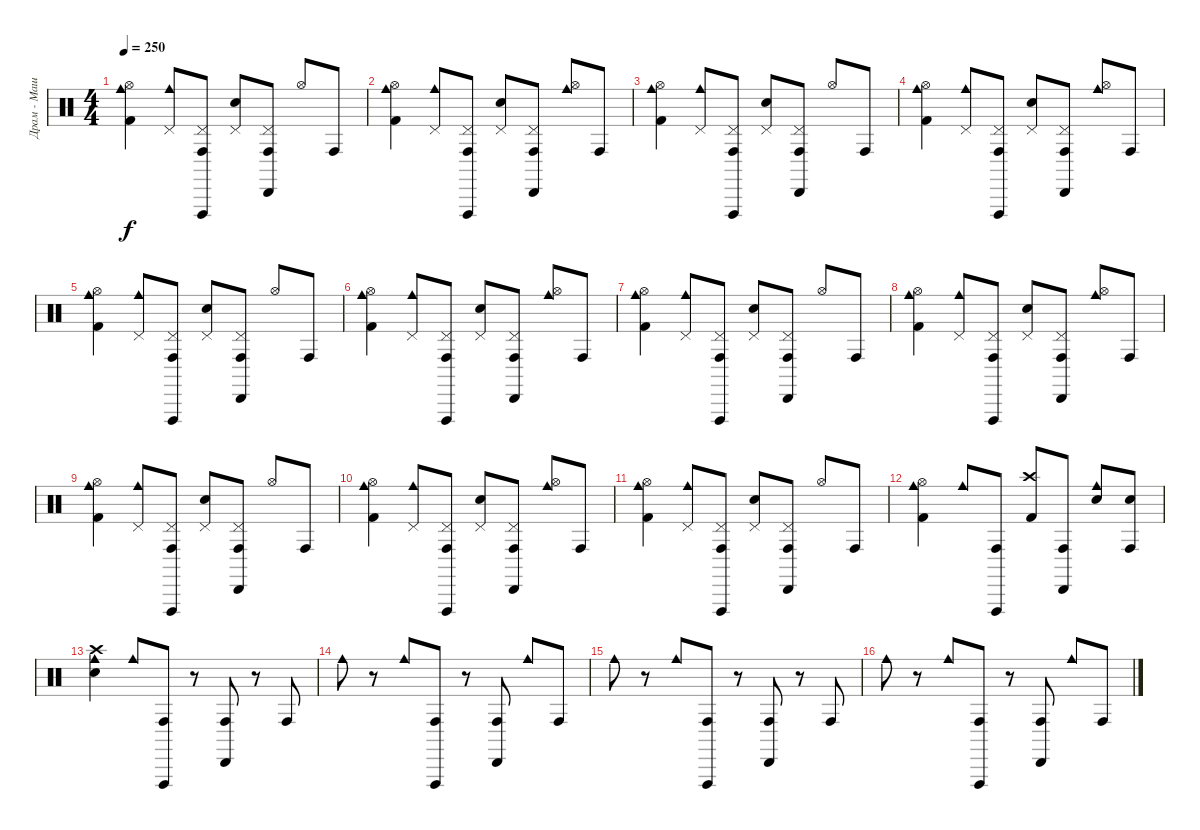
\track ("Драм - Машина" "Драм - Маш") {instrument percussion}
\staff {score}
\articulation defaults
\ts (4 4)
\tempo 250
\clef neutral
\ks c
("Cowbell medium (hit)" "Hi-Hat (open)" "Kick (hit) 2").4{dy f} ("Cowbell medium (hit)" "Pedal Hi-Hat (hit)").8 ("Conga high (hit)" "Vibraslap (hit)" "Pedal Hi-Hat (hit)").8 ("Pedal Hi-Hat (hit)" "Snare (hit) 2").8 ("Cabasa (hit)" "Conga high (hit)" "Pedal Hi-Hat (hit)").8 "Hi-Hat (open)".8 "Conga high (hit)".8 |
("Cowbell medium (hit)" "Hi-Hat (open)" "Kick (hit) 2").4 ("Cowbell medium (hit)" "Pedal Hi-Hat (hit)").8 ("Conga high (hit)" "Vibraslap (hit)" "Pedal Hi-Hat (hit)").8 ("Pedal Hi-Hat (hit)" "Snare (hit) 2").8 ("Cabasa (hit)" "Conga high (hit)" "Pedal Hi-Hat (hit)").8 ("Cowbell medium (hit)" "Hi-Hat (open)").8 "Conga high (hit)".8 |
("Cowbell medium (hit)" "Hi-Hat (open)" "Kick (hit) 2").4 ("Cowbell medium (hit)" "Pedal Hi-Hat (hit)").8 ("Conga high (hit)" "Vibraslap (hit)" "Pedal Hi-Hat (hit)").8 ("Pedal Hi-Hat (hit)" "Snare (hit) 2").8 ("Cabasa (hit)" "Conga high (hit)" "Pedal Hi-Hat (hit)").8 "Hi-Hat (open)".8 "Conga high (hit)".8 |
("Cowbell medium (hit)" "Hi-Hat (open)" "Kick (hit) 2").4 ("Cowbell medium (hit)" "Pedal Hi-Hat (hit)").8 ("Conga high (hit)" "Vibraslap (hit)" "Pedal Hi-Hat (hit)").8 ("Pedal Hi-Hat (hit)" "Snare (hit) 2").8 ("Cabasa (hit)" "Conga high (hit)" "Pedal Hi-Hat (hit)").8 ("Cowbell medium (hit)" "Hi-Hat (open)").8 "Conga high (hit)".8 |
("Cowbell medium (hit)" "Hi-Hat (open)" "Kick (hit) 2").4 ("Cowbell medium (hit)" "Pedal Hi-Hat (hit)").8 ("Conga high (hit)" "Vibraslap (hit)" "Pedal Hi-Hat (hit)").8 ("Pedal Hi-Hat (hit)" "Snare (hit) 2").8 ("Cabasa (hit)" "Conga high (hit)" "Pedal Hi-Hat (hit)").8 "Hi-Hat (open)".8 "Conga high (hit)".8 |
("Cowbell medium (hit)" "Hi-Hat (open)" "Kick (hit) 2").4 ("Cowbell medium (hit)" "Pedal Hi-Hat (hit)").8 ("Conga high (hit)" "Vibraslap (hit)" "Pedal Hi-Hat (hit)").8 ("Pedal Hi-Hat (hit)" "Snare (hit) 2").8 ("Cabasa (hit)" "Conga high (hit)" "Pedal Hi-Hat (hit)").8 ("Cowbell medium (hit)" "Hi-Hat (open)").8 "Conga high (hit)".8 |
("Cowbell medium (hit)" "Hi-Hat (open)" "Kick (hit) 2").4 ("Cowbell medium (hit)" "Pedal Hi-Hat (hit)").8 ("Conga high (hit)" "Vibraslap (hit)" "Pedal Hi-Hat (hit)").8 ("Pedal Hi-Hat (hit)" "Snare (hit) 2").8 ("Cabasa (hit)" "Conga high (hit)" "Pedal Hi-Hat (hit)").8 "Hi-Hat (open)".8 "Conga high (hit)".8 |
("Cowbell medium (hit)" "Hi-Hat (open)" "Kick (hit) 2").4 ("Cowbell medium (hit)" "Pedal Hi-Hat (hit)").8 ("Conga high (hit)" "Vibraslap (hit)" "Pedal Hi-Hat (hit)").8 ("Pedal Hi-Hat (hit)" "Snare (hit) 2").8 ("Cabasa (hit)" "Conga high (hit)" "Pedal Hi-Hat (hit)").8 ("Cowbell medium (hit)" "Hi-Hat (open)").8 "Conga high (hit)".8 |
("Cowbell medium (hit)" "Hi-Hat (open)" "Kick (hit) 2").4 ("Cowbell medium (hit)" "Pedal Hi-Hat (hit)").8 ("Conga high (hit)" "Vibraslap (hit)" "Pedal Hi-Hat (hit)").8 ("Pedal Hi-Hat (hit)" "Snare (hit) 2").8 ("Cabasa (hit)" "Conga high (hit)" "Pedal Hi-Hat (hit)").8 "Hi-Hat (open)".8 "Conga high (hit)".8 |
("Cowbell medium (hit)" "Hi-Hat (open)" "Kick (hit) 2").4 ("Cowbell medium (hit)" "Pedal Hi-Hat (hit)").8 ("Conga high (hit)" "Vibraslap (hit)" "Pedal Hi-Hat (hit)").8 ("Pedal Hi-Hat (hit)" "Snare (hit) 2").8 ("Cabasa (hit)" "Conga high (hit)" "Pedal Hi-Hat (hit)").8 ("Cowbell medium (hit)" "Hi-Hat (open)").8 "Conga high (hit)".8 |
("Cowbell medium (hit)" "Hi-Hat (open)" "Kick (hit) 2").4 ("Cowbell medium (hit)" "Pedal Hi-Hat (hit)").8 ("Conga high (hit)" "Vibraslap (hit)" "Pedal Hi-Hat (hit)").8 ("Pedal Hi-Hat (hit)" "Snare (hit) 2").8 ("Cabasa (hit)" "Conga high (hit)" "Pedal Hi-Hat (hit)").8 "Hi-Hat (open)".8 "Conga high (hit)".8 |
("Cowbell medium (hit)" "Hi-Hat (open)" "Kick (hit) 2").4 "Cowbell medium (hit)".8 ("Conga high (hit)" "Vibraslap (hit)").8 ("Crash high (hit)" "Kick (hit) 2").8 ("Cabasa (hit)" "Conga high (hit)").8 ("Cowbell medium (hit)" "Electric Snare (hit)").8 ("Conga high (hit)" "Electric Snare (hit)").8 |
("Cowbell medium (hit)" "Crash high (hit)" "Electric Snare (hit)").4 "Cowbell medium (hit)".8 ("Conga high (hit)" "Vibraslap (hit)").8 r.8 ("Cabasa (hit)" "Conga high (hit)").8 r.8 "Conga high (hit)".8 |
"Cowbell medium (hit)".8 r.8 "Cowbell medium (hit)".8 ("Conga high (hit)" "Vibraslap (hit)").8 r.8 ("Cabasa (hit)" "Conga high (hit)").8 "Cowbell medium (hit)".8 "Conga high (hit)".8 |
"Cowbell medium (hit)".8 r.8 "Cowbell medium (hit)".8 ("Conga high (hit)" "Vibraslap (hit)").8 r.8 ("Cabasa (hit)" "Conga high (hit)").8 r.8 "Conga high (hit)".8 |
"Cowbell medium (hit)".8 r.8 "Cowbell medium (hit)".8 ("Conga high (hit)" "Vibraslap (hit)").8 r.8 ("Cabasa (hit)" "Conga high (hit)").8 "Cowbell medium (hit)".8 "Conga high (hit)".8
